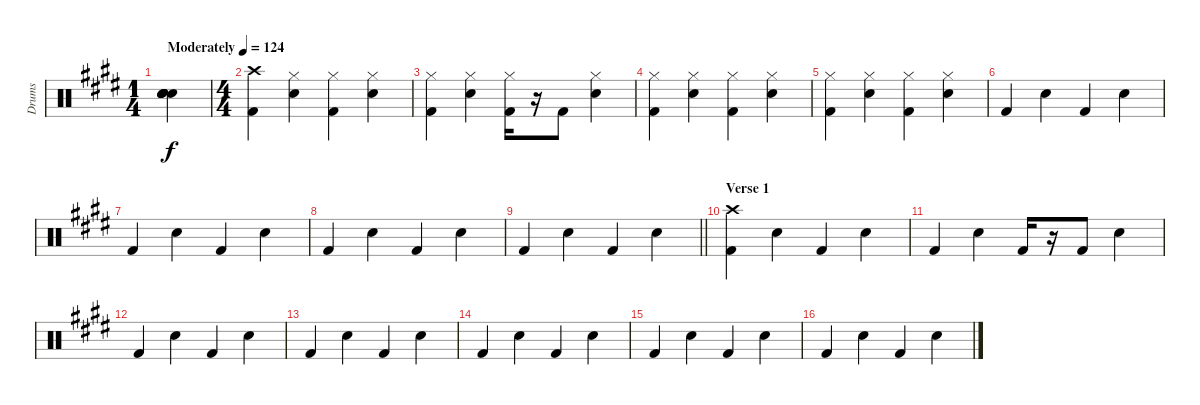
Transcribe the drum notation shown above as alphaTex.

\track ("Drums" "Drums") {instrument percussion}
\staff {score}
\articulation defaults
\ts (1 4)
\tempo (124 "Moderately")
\clef neutral
\ks e
("Electric Snare (hit)" "Electric Snare (hit)" "Electric Snare (hit)" "Electric Snare (hit)" "Electric Snare (hit)" "Electric Snare (hit)").4{dy f} |
\ts (4 4)
("Crash high (hit)" "Kick (hit) 2").4 ("Hi-Hat (closed)" "Snare (hit) 2").4 ("Hi-Hat (closed)" "Kick (hit) 2").4 ("Hi-Hat (closed)" "Snare (hit) 2").4 |
("Hi-Hat (closed)" "Kick (hit) 2").4 ("Hi-Hat (closed)" "Snare (hit) 2").4 ("Hi-Hat (closed)" "Kick (hit) 2").16 r.16 "Kick (hit) 2".8 ("Hi-Hat (closed)" "Snare (hit) 2").4 |
("Hi-Hat (closed)" "Kick (hit) 2").4 ("Hi-Hat (closed)" "Snare (hit) 2").4 ("Hi-Hat (closed)" "Kick (hit) 2").4 ("Hi-Hat (closed)" "Snare (hit) 2").4 |
("Hi-Hat (closed)" "Kick (hit) 2").4 ("Hi-Hat (closed)" "Snare (hit) 2").4 ("Hi-Hat (closed)" "Kick (hit) 2").4 ("Hi-Hat (closed)" "Snare (hit) 2").4 |
"Kick (hit) 2".4 "Snare (hit) 2".4 "Kick (hit) 2".4 "Snare (hit) 2".4 |
"Kick (hit) 2".4 "Snare (hit) 2".4 "Kick (hit) 2".4 "Snare (hit) 2".4 |
"Kick (hit) 2".4 "Snare (hit) 2".4 "Kick (hit) 2".4 "Snare (hit) 2".4 |
\barLineRight lightlight "Kick (hit) 2".4 "Snare (hit) 2".4 "Kick (hit) 2".4 "Snare (hit) 2".4
|
\section ("" "Verse 1")
("Crash high (hit)" "Kick (hit) 2").4 "Snare (hit) 2".4 "Kick (hit) 2".4 "Snare (hit) 2".4 |
"Kick (hit) 2".4 "Snare (hit) 2".4 "Kick (hit) 2".16 r.16 "Kick (hit) 2".8 "Snare (hit) 2".4 |
"Kick (hit) 2".4 "Snare (hit) 2".4 "Kick (hit) 2".4 "Snare (hit) 2".4 |
"Kick (hit) 2".4 "Snare (hit) 2".4 "Kick (hit) 2".4 "Snare (hit) 2".4 |
"Kick (hit) 2".4 "Snare (hit) 2".4 "Kick (hit) 2".4 "Snare (hit) 2".4 |
"Kick (hit) 2".4 "Snare (hit) 2".4 "Kick (hit) 2".4 "Snare (hit) 2".4 |
"Kick (hit) 2".4 "Snare (hit) 2".4 "Kick (hit) 2".4 "Snare (hit) 2".4
